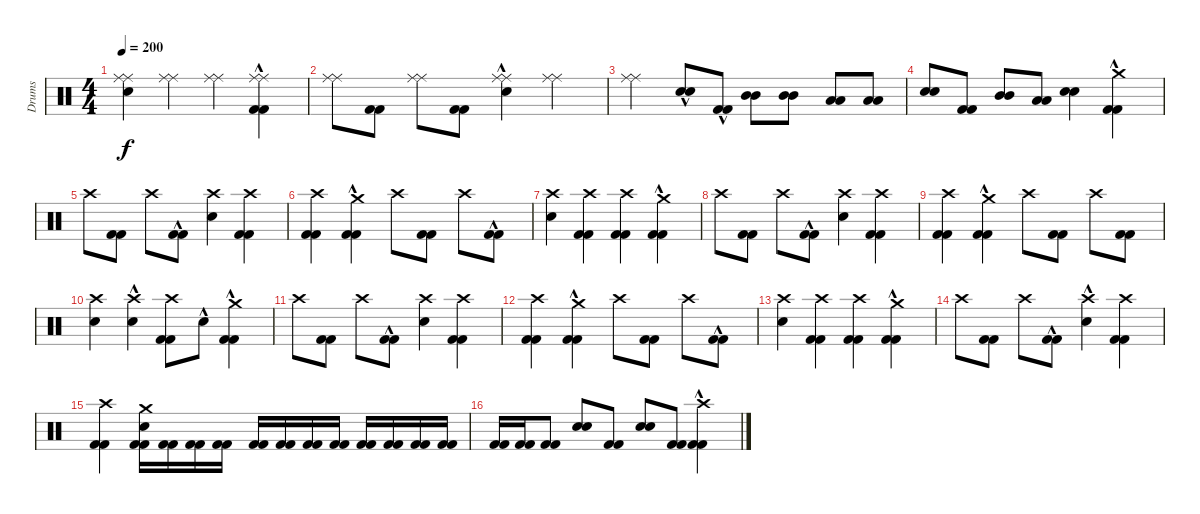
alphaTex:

\track ("Drums" "Drums") {instrument percussion}
\staff {score}
\articulation defaults
\ts (4 4)
\tempo 200
\clef neutral
\ks c
("Electric Snare (hit)" "Ride (middle)" "Ride (middle)").4{dy f} ("Ride (middle)" "Ride (middle)").4 ("Ride (middle)" "Ride (middle)").4 ("Kick (hit) 2"{hac} "Kick (hit) 2"{hac} "Ride (middle)" "Ride (middle)").4 |
("Ride (middle)" "Ride (middle)").8 ("Kick (hit) 2" "Kick (hit) 2").8 ("Ride (middle)" "Ride (middle)").8 ("Kick (hit) 2" "Kick (hit) 2").8 ("Electric Snare (hit)"{hac} "Ride (middle)" "Ride (middle)").4 ("Ride (middle)" "Ride (middle)").4 |
("Ride (middle)" "Ride (middle)").4 ("Electric Snare (hit)"{hac} "Electric Snare (hit)"{hac}).8 ("Kick (hit) 2"{hac} "Kick (hit) 2"{hac}).8 ("Mid Tom (hit)" "Mid Tom (hit)").8 ("Mid Tom (hit)" "Mid Tom (hit)").8 ("Low Tom (hit)" "Low Tom (hit)").8 ("Low Tom (hit)" "Low Tom (hit)").8 |
("Electric Snare (hit)" "Electric Snare (hit)").8 ("Kick (hit) 2" "Kick (hit) 2").8 ("Mid Tom (hit)" "Mid Tom (hit)").8 ("Low Tom (hit)" "Low Tom (hit)").8 ("Electric Snare (hit)" "Electric Snare (hit)").4 ("Kick (hit) 2"{hac} "Kick (hit) 2"{hac} "Crash medium (hit)").4 |
"Crash high (hit)".8 ("Kick (hit) 2" "Kick (hit) 2").8 "Crash high (hit)".8 ("Kick (hit) 2"{hac} "Kick (hit) 2"{hac}).8 ("Electric Snare (hit)" "Crash high (hit)").4 ("Kick (hit) 2" "Kick (hit) 2" "Crash high (hit)").4 |
("Kick (hit) 2" "Kick (hit) 2" "Crash high (hit)").4 ("Kick (hit) 2"{hac} "Kick (hit) 2"{hac} "Crash medium (hit)").4 "Crash high (hit)".8 ("Kick (hit) 2" "Kick (hit) 2").8 "Crash high (hit)".8 ("Kick (hit) 2"{hac} "Kick (hit) 2"{hac}).8 |
("Electric Snare (hit)" "Crash high (hit)").4 ("Kick (hit) 2" "Kick (hit) 2" "Crash high (hit)").4 ("Kick (hit) 2" "Kick (hit) 2" "Crash high (hit)").4 ("Kick (hit) 2"{hac} "Kick (hit) 2"{hac} "Crash medium (hit)").4 |
"Crash high (hit)".8 ("Kick (hit) 2" "Kick (hit) 2").8 "Crash high (hit)".8 ("Kick (hit) 2"{hac} "Kick (hit) 2"{hac}).8 ("Electric Snare (hit)" "Crash high (hit)").4 ("Kick (hit) 2" "Kick (hit) 2" "Crash high (hit)").4 |
("Kick (hit) 2" "Kick (hit) 2" "Crash high (hit)").4 ("Kick (hit) 2"{hac} "Kick (hit) 2"{hac} "Crash medium (hit)").4 "Crash high (hit)".8 ("Kick (hit) 2" "Kick (hit) 2").8 "Crash high (hit)".8 ("Kick (hit) 2" "Kick (hit) 2").8 |
("Electric Snare (hit)" "Crash high (hit)").4 ("Electric Snare (hit)"{hac} "Crash high (hit)").4 ("Kick (hit) 2" "Kick (hit) 2" "Crash high (hit)").8 "Electric Snare (hit)"{hac}.8 ("Kick (hit) 2"{hac} "Kick (hit) 2"{hac} "Crash medium (hit)").4 |
"Crash high (hit)".8 ("Kick (hit) 2" "Kick (hit) 2").8 "Crash high (hit)".8 ("Kick (hit) 2"{hac} "Kick (hit) 2"{hac}).8 ("Electric Snare (hit)" "Crash high (hit)").4 ("Kick (hit) 2" "Kick (hit) 2" "Crash high (hit)").4 |
("Kick (hit) 2" "Kick (hit) 2" "Crash high (hit)").4 ("Kick (hit) 2"{hac} "Kick (hit) 2"{hac} "Crash medium (hit)").4 "Crash high (hit)".8 ("Kick (hit) 2" "Kick (hit) 2").8 "Crash high (hit)".8 ("Kick (hit) 2"{hac} "Kick (hit) 2"{hac}).8 |
("Electric Snare (hit)" "Crash high (hit)").4 ("Kick (hit) 2" "Kick (hit) 2" "Crash high (hit)").4 ("Kick (hit) 2" "Kick (hit) 2" "Crash high (hit)").4 ("Kick (hit) 2"{hac} "Kick (hit) 2"{hac} "Crash medium (hit)").4 |
"Crash high (hit)".8 ("Kick (hit) 2" "Kick (hit) 2").8 "Crash high (hit)".8 ("Kick (hit) 2"{hac} "Kick (hit) 2"{hac}).8 ("Electric Snare (hit)"{hac} "Crash high (hit)").4 ("Kick (hit) 2" "Kick (hit) 2" "Crash high (hit)").4 |
("Kick (hit) 2" "Kick (hit) 2" "Crash high (hit)").4 ("Kick (hit) 2" "Kick (hit) 2" "Electric Snare (hit)" "Crash medium (hit)").16 ("Kick (hit) 2" "Kick (hit) 2").16 ("Kick (hit) 2" "Kick (hit) 2").16 ("Kick (hit) 2" "Kick (hit) 2").16 ("Kick (hit) 2" "Kick (hit) 2").16 ("Kick (hit) 2" "Kick (hit) 2").16 ("Kick (hit) 2" "Kick (hit) 2").16 ("Kick (hit) 2" "Kick (hit) 2").16 ("Kick (hit) 2" "Kick (hit) 2").16 ("Kick (hit) 2" "Kick (hit) 2").16 ("Kick (hit) 2" "Kick (hit) 2").16 ("Kick (hit) 2" "Kick (hit) 2").16 |
("Kick (hit) 2" "Kick (hit) 2").16 ("Kick (hit) 2" "Kick (hit) 2").16 ("Kick (hit) 2" "Kick (hit) 2").8 ("Electric Snare (hit)" "Electric Snare (hit)").8 ("Kick (hit) 2" "Kick (hit) 2").8 ("Electric Snare (hit)" "Electric Snare (hit)").8 ("Kick (hit) 2" "Kick (hit) 2").8 ("Kick (hit) 2"{hac} "Kick (hit) 2"{hac} "Crash high (hit)").4
